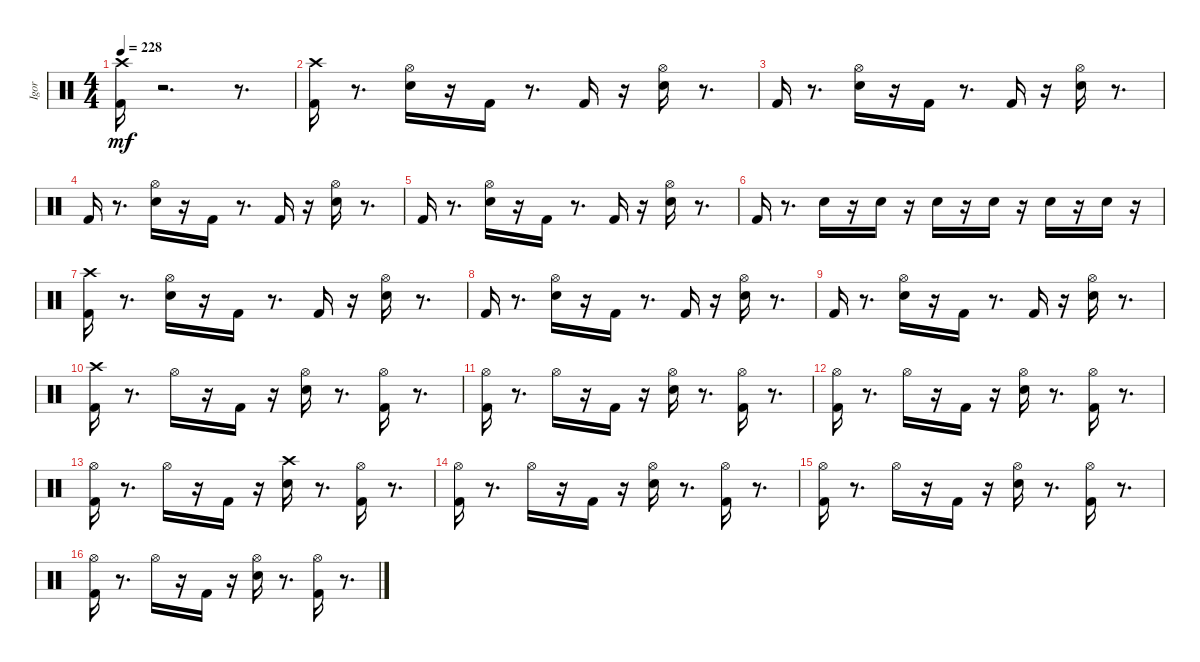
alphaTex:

\track ("Igor" "Igor") {instrument percussion}
\staff {score}
\articulation defaults
\ts (4 4)
\tempo 228
\clef neutral
\ks c
("Crash high (hit)" "Kick (hit) 2").16{dy mf} r.2{d} r.8{d} |
("Crash high (hit)" "Kick (hit) 2").16 r.8{d} ("Snare (hit) 2" "Hi-Hat (open)").16 r.16 "Kick (hit) 2".16 r.8{d} "Kick (hit) 2".16 r.16 ("Snare (hit) 2" "Hi-Hat (open)").16 r.8{d} |
"Kick (hit) 2".16 r.8{d} ("Snare (hit) 2" "Hi-Hat (open)").16 r.16 "Kick (hit) 2".16 r.8{d} "Kick (hit) 2".16 r.16 ("Snare (hit) 2" "Hi-Hat (open)").16 r.8{d} |
"Kick (hit) 2".16 r.8{d} ("Snare (hit) 2" "Hi-Hat (open)").16 r.16 "Kick (hit) 2".16 r.8{d} "Kick (hit) 2".16 r.16 ("Snare (hit) 2" "Hi-Hat (open)").16 r.8{d} |
"Kick (hit) 2".16 r.8{d} ("Snare (hit) 2" "Hi-Hat (open)").16 r.16 "Kick (hit) 2".16 r.8{d} "Kick (hit) 2".16 r.16 ("Snare (hit) 2" "Hi-Hat (open)").16 r.8{d} |
"Kick (hit) 2".16 r.8{d} "Snare (hit) 2".16 r.16 "Snare (hit) 2".16 r.16 "Snare (hit) 2".16 r.16 "Snare (hit) 2".16 r.16 "Snare (hit) 2".16 r.16 "Snare (hit) 2".16 r.16 |
("Crash high (hit)" "Kick (hit) 2").16 r.8{d} ("Snare (hit) 2" "Hi-Hat (open)").16 r.16 "Kick (hit) 2".16 r.8{d} "Kick (hit) 2".16 r.16 ("Snare (hit) 2" "Hi-Hat (open)").16 r.8{d} |
"Kick (hit) 2".16 r.8{d} ("Snare (hit) 2" "Hi-Hat (open)").16 r.16 "Kick (hit) 2".16 r.8{d} "Kick (hit) 2".16 r.16 ("Snare (hit) 2" "Hi-Hat (open)").16 r.8{d} |
"Kick (hit) 2".16 r.8{d} ("Snare (hit) 2" "Hi-Hat (open)").16 r.16 "Kick (hit) 2".16 r.8{d} "Kick (hit) 2".16 r.16 ("Snare (hit) 2" "Hi-Hat (open)").16 r.8{d} |
("Kick (hit) 2" "Crash high (hit)").16 r.8{d} "Hi-Hat (open)".16 r.16 "Kick (hit) 2".16 r.16 ("Snare (hit) 2" "Hi-Hat (open)").16 r.8{d} ("Kick (hit) 2" "Hi-Hat (open)").16 r.8{d} |
("Kick (hit) 2" "Hi-Hat (open)").16 r.8{d} "Hi-Hat (open)".16 r.16 "Kick (hit) 2".16 r.16 ("Snare (hit) 2" "Hi-Hat (open)").16 r.8{d} ("Kick (hit) 2" "Hi-Hat (open)").16 r.8{d} |
("Kick (hit) 2" "Hi-Hat (open)").16 r.8{d} "Hi-Hat (open)".16 r.16 "Kick (hit) 2".16 r.16 ("Snare (hit) 2" "Hi-Hat (open)").16 r.8{d} ("Kick (hit) 2" "Hi-Hat (open)").16 r.8{d} |
("Kick (hit) 2" "Hi-Hat (open)").16 r.8{d} "Hi-Hat (open)".16 r.16 "Kick (hit) 2".16 r.16 ("Snare (hit) 2" "Crash high (hit)").16 r.8{d} ("Kick (hit) 2" "Hi-Hat (open)").16 r.8{d} |
("Kick (hit) 2" "Hi-Hat (open)").16 r.8{d} "Hi-Hat (open)".16 r.16 "Kick (hit) 2".16 r.16 ("Snare (hit) 2" "Hi-Hat (open)").16 r.8{d} ("Kick (hit) 2" "Hi-Hat (open)").16 r.8{d} |
("Kick (hit) 2" "Hi-Hat (open)").16 r.8{d} "Hi-Hat (open)".16 r.16 "Kick (hit) 2".16 r.16 ("Snare (hit) 2" "Hi-Hat (open)").16 r.8{d} ("Kick (hit) 2" "Hi-Hat (open)").16 r.8{d} |
("Kick (hit) 2" "Hi-Hat (open)").16 r.8{d} "Hi-Hat (open)".16 r.16 "Kick (hit) 2".16 r.16 ("Snare (hit) 2" "Hi-Hat (open)").16 r.8{d} ("Kick (hit) 2" "Hi-Hat (open)").16 r.8{d}
